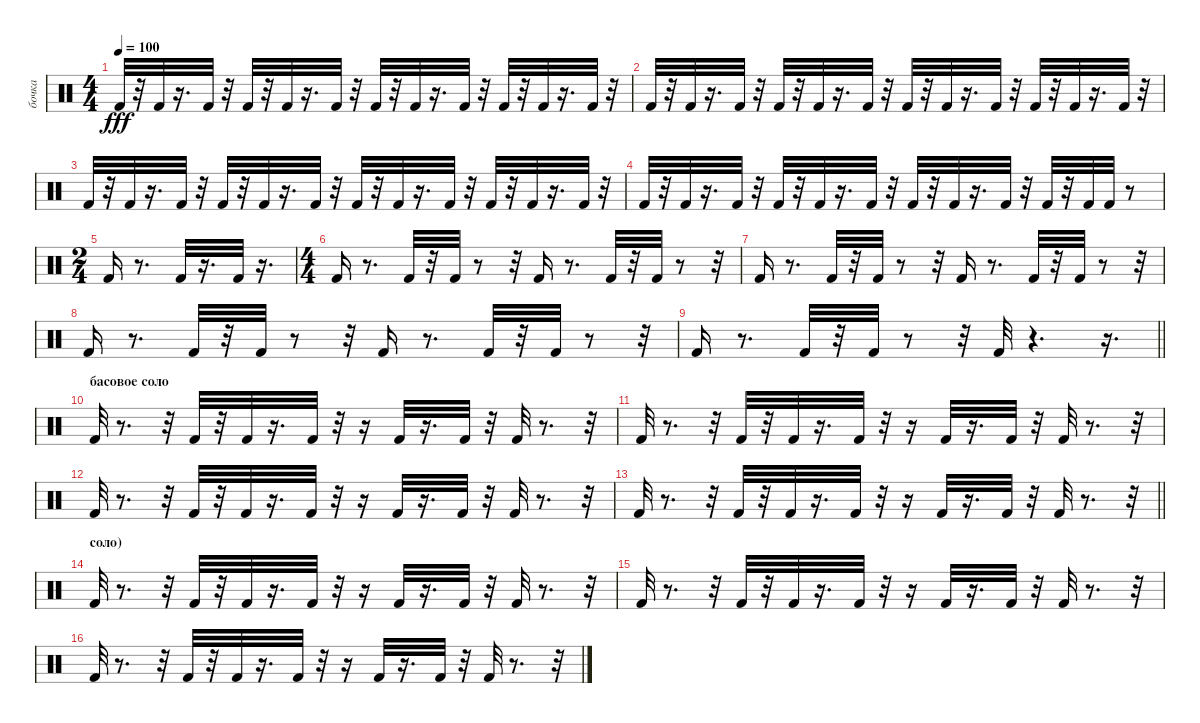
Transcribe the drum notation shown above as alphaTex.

\track ("бочка" "бочка") {instrument percussion}
\staff {score}
\articulation defaults
\ts (4 4)
\tempo 100
\clef neutral
\ks c "Kick (hit) 2".32{dy fff}
r.32 "Kick (hit) 2".32 r.16{d} "Kick (hit) 2".32 r.32 "Kick (hit) 2".32 r.32 "Kick (hit) 2".32 r.16{d} "Kick (hit) 2".32 r.32 "Kick (hit) 2".32 r.32 "Kick (hit) 2".32 r.16{d} "Kick (hit) 2".32 r.32 "Kick (hit) 2".32 r.32 "Kick (hit) 2".32 r.16{d} "Kick (hit) 2".32 r.32 |
"Kick (hit) 2".32 r.32 "Kick (hit) 2".32 r.16{d} "Kick (hit) 2".32 r.32 "Kick (hit) 2".32 r.32 "Kick (hit) 2".32 r.16{d} "Kick (hit) 2".32 r.32 "Kick (hit) 2".32 r.32 "Kick (hit) 2".32 r.16{d} "Kick (hit) 2".32 r.32 "Kick (hit) 2".32 r.32 "Kick (hit) 2".32 r.16{d} "Kick (hit) 2".32 r.32 |
"Kick (hit) 2".32 r.32 "Kick (hit) 2".32 r.16{d} "Kick (hit) 2".32 r.32 "Kick (hit) 2".32 r.32 "Kick (hit) 2".32 r.16{d} "Kick (hit) 2".32 r.32 "Kick (hit) 2".32 r.32 "Kick (hit) 2".32 r.16{d} "Kick (hit) 2".32 r.32 "Kick (hit) 2".32 r.32 "Kick (hit) 2".32 r.16{d} "Kick (hit) 2".32 r.32 |
"Kick (hit) 2".32 r.32 "Kick (hit) 2".32 r.16{d} "Kick (hit) 2".32 r.32 "Kick (hit) 2".32 r.32 "Kick (hit) 2".32 r.16{d} "Kick (hit) 2".32 r.32 "Kick (hit) 2".32 r.32 "Kick (hit) 2".32 r.16{d} "Kick (hit) 2".32 r.32 "Kick (hit) 2".32 r.32 "Kick (hit) 2".32 "Kick (hit) 2".32 r.8 |
\ts (2 4)
"Kick (hit) 2".16 r.8{d} "Kick (hit) 2".32 r.16{d} "Kick (hit) 2".32 r.16{d} |
\ts (4 4)
"Kick (hit) 2".16 r.8{d} "Kick (hit) 2".32 r.32 "Kick (hit) 2".32 r.8 r.32 "Kick (hit) 2".16 r.8{d} "Kick (hit) 2".32 r.32 "Kick (hit) 2".32 r.8 r.32 |
"Kick (hit) 2".16 r.8{d} "Kick (hit) 2".32 r.32 "Kick (hit) 2".32 r.8 r.32 "Kick (hit) 2".16 r.8{d} "Kick (hit) 2".32 r.32 "Kick (hit) 2".32 r.8 r.32 |
"Kick (hit) 2".16 r.8{d} "Kick (hit) 2".32 r.32 "Kick (hit) 2".32 r.8 r.32 "Kick (hit) 2".16 r.8{d} "Kick (hit) 2".32 r.32 "Kick (hit) 2".32 r.8 r.32 |
\barLineRight lightlight "Kick (hit) 2".16
r.8{d} "Kick (hit) 2".32 r.32 "Kick (hit) 2".32 r.8 r.32 "Kick (hit) 2".32 r.4{d} r.16{d} |
\section ("" "басовое соло")
"Kick (hit) 2".32 r.8{d} r.32 "Kick (hit) 2".32 r.32 "Kick (hit) 2".32 r.16{d} "Kick (hit) 2".32 r.32 r.16 "Kick (hit) 2".32 r.16{d} "Kick (hit) 2".32 r.32 "Kick (hit) 2".32 r.8{d} r.32 |
"Kick (hit) 2".32 r.8{d} r.32 "Kick (hit) 2".32 r.32 "Kick (hit) 2".32 r.16{d} "Kick (hit) 2".32 r.32 r.16 "Kick (hit) 2".32 r.16{d} "Kick (hit) 2".32 r.32 "Kick (hit) 2".32 r.8{d} r.32 |
"Kick (hit) 2".32 r.8{d} r.32 "Kick (hit) 2".32 r.32 "Kick (hit) 2".32 r.16{d} "Kick (hit) 2".32 r.32 r.16 "Kick (hit) 2".32 r.16{d} "Kick (hit) 2".32 r.32 "Kick (hit) 2".32 r.8{d} r.32 |
\barLineRight lightlight "Kick (hit) 2".32
r.8{d} r.32 "Kick (hit) 2".32 r.32 "Kick (hit) 2".32 r.16{d} "Kick (hit) 2".32 r.32 r.16 "Kick (hit) 2".32 r.16{d} "Kick (hit) 2".32 r.32 "Kick (hit) 2".32 r.8{d} r.32 |
\section ("" "соло)")
"Kick (hit) 2".32 r.8{d} r.32 "Kick (hit) 2".32 r.32 "Kick (hit) 2".32 r.16{d} "Kick (hit) 2".32 r.32 r.16 "Kick (hit) 2".32 r.16{d} "Kick (hit) 2".32 r.32 "Kick (hit) 2".32 r.8{d} r.32 |
"Kick (hit) 2".32 r.8{d} r.32 "Kick (hit) 2".32 r.32 "Kick (hit) 2".32 r.16{d} "Kick (hit) 2".32 r.32 r.16 "Kick (hit) 2".32 r.16{d} "Kick (hit) 2".32 r.32 "Kick (hit) 2".32 r.8{d} r.32 |
"Kick (hit) 2".32 r.8{d} r.32 "Kick (hit) 2".32 r.32 "Kick (hit) 2".32 r.16{d} "Kick (hit) 2".32 r.32 r.16 "Kick (hit) 2".32 r.16{d} "Kick (hit) 2".32 r.32 "Kick (hit) 2".32 r.8{d} r.32
